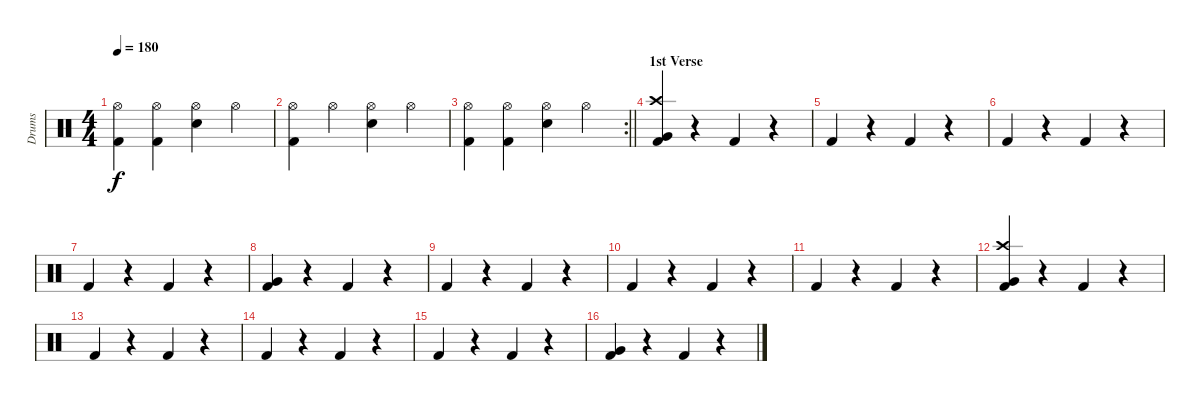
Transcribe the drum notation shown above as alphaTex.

\track ("Drums" "Drums") {instrument percussion}
\staff {score}
\articulation defaults
\ts (4 4)
\tempo 180
\clef neutral
\ks c
("Hi-Hat (open)" "Kick (hit) 2").4{dy f} ("Hi-Hat (open)" "Kick (hit) 2").4 ("Hi-Hat (open)" "Snare (hit) 2").4 "Hi-Hat (open)".4 |
("Hi-Hat (open)" "Kick (hit) 2").4 "Hi-Hat (open)".4 ("Hi-Hat (open)" "Snare (hit) 2").4 "Hi-Hat (open)".4 |
\rc 2
\barLineRight lightlight
("Hi-Hat (open)" "Kick (hit) 2").4 ("Hi-Hat (open)" "Kick (hit) 2").4 ("Hi-Hat (open)" "Snare (hit) 2").4 "Hi-Hat (open)".4 |
\section ("" "1st Verse")
("Crash high (hit)" "Very Low Tom (hit)" "Kick (hit) 2").4 r.4 "Kick (hit) 2".4 r.4 |
"Kick (hit) 2".4 r.4 "Kick (hit) 2".4 r.4 |
"Kick (hit) 2".4 r.4 "Kick (hit) 2".4 r.4 |
"Kick (hit) 2".4 r.4 "Kick (hit) 2".4 r.4 |
("Very Low Tom (hit)" "Kick (hit) 2").4 r.4 "Kick (hit) 2".4 r.4 |
"Kick (hit) 2".4 r.4 "Kick (hit) 2".4 r.4 |
"Kick (hit) 2".4 r.4 "Kick (hit) 2".4 r.4 |
"Kick (hit) 2".4 r.4 "Kick (hit) 2".4 r.4 |
("Crash high (hit)" "Very Low Tom (hit)" "Kick (hit) 2").4 r.4 "Kick (hit) 2".4 r.4 |
"Kick (hit) 2".4 r.4 "Kick (hit) 2".4 r.4 |
"Kick (hit) 2".4 r.4 "Kick (hit) 2".4 r.4 |
"Kick (hit) 2".4 r.4 "Kick (hit) 2".4 r.4 |
("Very Low Tom (hit)" "Kick (hit) 2").4 r.4 "Kick (hit) 2".4 r.4
